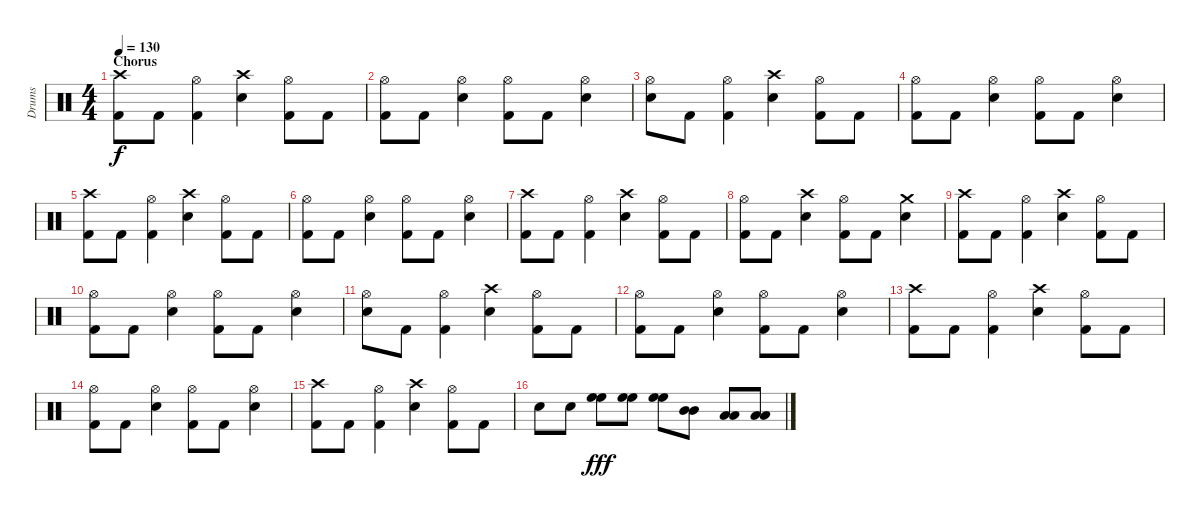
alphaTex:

\track ("Drums" "Drums") {instrument percussion}
\staff {score}
\articulation defaults
\ts (4 4)
\section ("" "Chorus")
\tempo 130
\clef neutral
\ks c
("Crash high (hit)" "Kick (hit) 2").8{dy f} "Kick (hit) 2".8 ("Hi-Hat (open)" "Kick (hit) 2").4 ("Crash high (hit)" "Snare (hit) 2").4 ("Hi-Hat (open)" "Kick (hit) 2").8 "Kick (hit) 2".8 |
("Hi-Hat (open)" "Kick (hit) 2").8 "Kick (hit) 2".8 ("Hi-Hat (open)" "Snare (hit) 2").4 ("Hi-Hat (open)" "Kick (hit) 2").8 "Kick (hit) 2".8 ("Hi-Hat (open)" "Snare (hit) 2").4 |
("Hi-Hat (open)" "Snare (hit) 2").8 "Kick (hit) 2".8 ("Hi-Hat (open)" "Kick (hit) 2").4 ("Crash high (hit)" "Snare (hit) 2").4 ("Hi-Hat (open)" "Kick (hit) 2").8 "Kick (hit) 2".8 |
("Hi-Hat (open)" "Kick (hit) 2").8 "Kick (hit) 2".8 ("Hi-Hat (open)" "Snare (hit) 2").4 ("Hi-Hat (open)" "Kick (hit) 2").8 "Kick (hit) 2".8 ("Hi-Hat (open)" "Snare (hit) 2").4 |
("Crash high (hit)" "Kick (hit) 2").8 "Kick (hit) 2".8 ("Hi-Hat (open)" "Kick (hit) 2").4 ("Crash high (hit)" "Snare (hit) 2").4 ("Hi-Hat (open)" "Kick (hit) 2").8 "Kick (hit) 2".8 |
("Hi-Hat (open)" "Kick (hit) 2").8 "Kick (hit) 2".8 ("Hi-Hat (open)" "Snare (hit) 2").4 ("Hi-Hat (open)" "Kick (hit) 2").8 "Kick (hit) 2".8 ("Hi-Hat (open)" "Snare (hit) 2").4 |
("Crash high (hit)" "Kick (hit) 2").8 "Kick (hit) 2".8 ("Hi-Hat (open)" "Kick (hit) 2").4 ("Crash high (hit)" "Snare (hit) 2").4 ("Hi-Hat (open)" "Kick (hit) 2").8 "Kick (hit) 2".8 |
("Hi-Hat (open)" "Kick (hit) 2").8 "Kick (hit) 2".8 ("Crash high (hit)" "Snare (hit) 2").4 ("Hi-Hat (open)" "Kick (hit) 2").8 "Kick (hit) 2".8 ("Crash medium (hit)" "Snare (hit) 2").4 |
("Crash high (hit)" "Kick (hit) 2").8 "Kick (hit) 2".8 ("Hi-Hat (open)" "Kick (hit) 2").4 ("Crash high (hit)" "Snare (hit) 2").4 ("Hi-Hat (open)" "Kick (hit) 2").8 "Kick (hit) 2".8 |
("Hi-Hat (open)" "Kick (hit) 2").8 "Kick (hit) 2".8 ("Hi-Hat (open)" "Snare (hit) 2").4 ("Hi-Hat (open)" "Kick (hit) 2").8 "Kick (hit) 2".8 ("Hi-Hat (open)" "Snare (hit) 2").4 |
("Hi-Hat (open)" "Snare (hit) 2").8 "Kick (hit) 2".8 ("Hi-Hat (open)" "Kick (hit) 2").4 ("Crash high (hit)" "Snare (hit) 2").4 ("Hi-Hat (open)" "Kick (hit) 2").8 "Kick (hit) 2".8 |
("Hi-Hat (open)" "Kick (hit) 2").8 "Kick (hit) 2".8 ("Hi-Hat (open)" "Snare (hit) 2").4 ("Hi-Hat (open)" "Kick (hit) 2").8 "Kick (hit) 2".8 ("Hi-Hat (open)" "Snare (hit) 2").4 |
("Crash high (hit)" "Kick (hit) 2").8 "Kick (hit) 2".8 ("Hi-Hat (open)" "Kick (hit) 2").4 ("Crash high (hit)" "Snare (hit) 2").4 ("Hi-Hat (open)" "Kick (hit) 2").8 "Kick (hit) 2".8 |
("Hi-Hat (open)" "Kick (hit) 2").8 "Kick (hit) 2".8 ("Hi-Hat (open)" "Snare (hit) 2").4 ("Hi-Hat (open)" "Kick (hit) 2").8 "Kick (hit) 2".8 ("Hi-Hat (open)" "Snare (hit) 2").4 |
("Crash high (hit)" "Kick (hit) 2").8 "Kick (hit) 2".8 ("Hi-Hat (open)" "Kick (hit) 2").4 ("Crash high (hit)" "Snare (hit) 2").4 ("Hi-Hat (open)" "Kick (hit) 2").8 "Kick (hit) 2".8 |
"Snare (hit) 2".8 "Snare (hit) 2".8 ("High Floor Tom (hit)" "High Floor Tom (hit)").8{dy fff} ("High Floor Tom (hit)" "High Floor Tom (hit)").8 ("High Floor Tom (hit)" "High Floor Tom (hit)").8 ("Mid Tom (hit)" "Mid Tom (hit)").8 ("Low Tom (hit)" "Low Tom (hit)").8 ("Low Floor Tom (hit)" "Low Floor Tom (hit)").8
